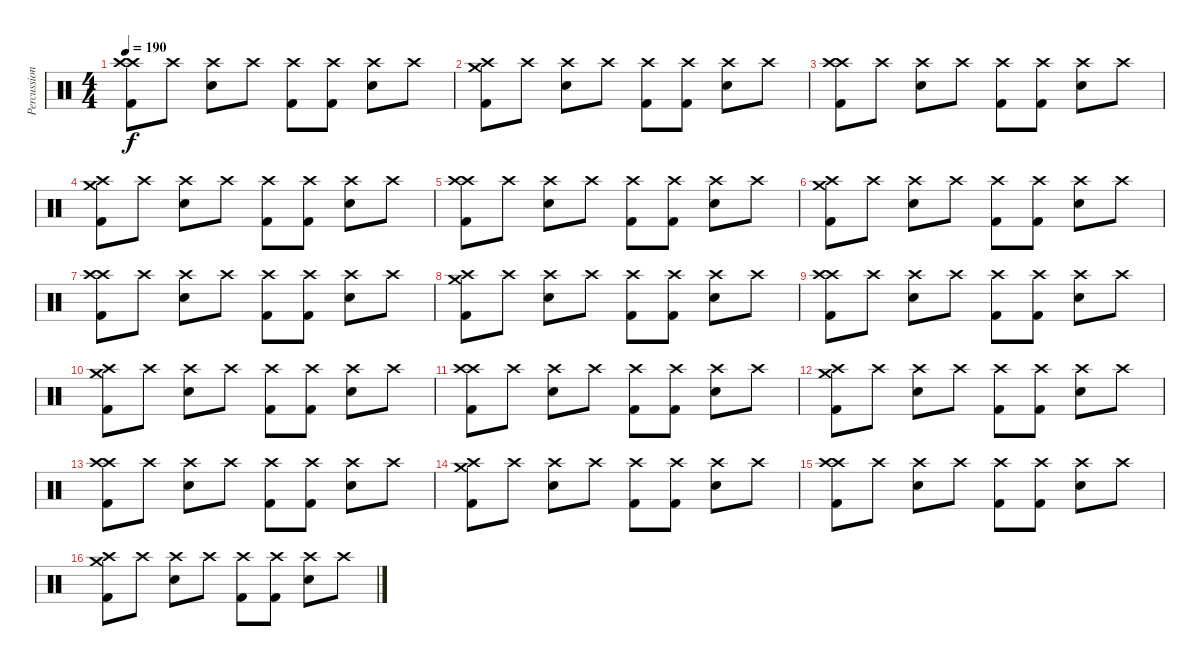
\track ("Percussion" "Percussion") {instrument percussion}
\staff {score}
\articulation defaults
\ts (4 4)
\tempo 190
\clef neutral
\ks c
("Crash high (hit)" "Crash high (hit)" "Kick (hit) 2").8{dy f} "Crash high (hit)".8 ("Crash high (hit)" "Snare (hit) 2").8 "Crash high (hit)".8 ("Crash high (hit)" "Kick (hit) 2").8 ("Crash high (hit)" "Kick (hit) 2").8 ("Crash high (hit)" "Snare (hit) 2").8 "Crash high (hit)".8 |
("Crash medium (hit)" "Crash high (hit)" "Kick (hit) 2").8 "Crash high (hit)".8 ("Crash high (hit)" "Snare (hit) 2").8 "Crash high (hit)".8 ("Crash high (hit)" "Kick (hit) 2").8 ("Crash high (hit)" "Kick (hit) 2").8 ("Crash high (hit)" "Snare (hit) 2").8 "Crash high (hit)".8 |
("Crash high (hit)" "Crash high (hit)" "Kick (hit) 2").8 "Crash high (hit)".8 ("Crash high (hit)" "Snare (hit) 2").8 "Crash high (hit)".8 ("Crash high (hit)" "Kick (hit) 2").8 ("Crash high (hit)" "Kick (hit) 2").8 ("Crash high (hit)" "Snare (hit) 2").8 "Crash high (hit)".8 |
("Crash medium (hit)" "Crash high (hit)" "Kick (hit) 2").8 "Crash high (hit)".8 ("Crash high (hit)" "Snare (hit) 2").8 "Crash high (hit)".8 ("Crash high (hit)" "Kick (hit) 2").8 ("Crash high (hit)" "Kick (hit) 2").8 ("Crash high (hit)" "Snare (hit) 2").8 "Crash high (hit)".8 |
("Crash high (hit)" "Crash high (hit)" "Kick (hit) 2").8 "Crash high (hit)".8 ("Crash high (hit)" "Snare (hit) 2").8 "Crash high (hit)".8 ("Crash high (hit)" "Kick (hit) 2").8 ("Crash high (hit)" "Kick (hit) 2").8 ("Crash high (hit)" "Snare (hit) 2").8 "Crash high (hit)".8 |
("Crash medium (hit)" "Crash high (hit)" "Kick (hit) 2").8 "Crash high (hit)".8 ("Crash high (hit)" "Snare (hit) 2").8 "Crash high (hit)".8 ("Crash high (hit)" "Kick (hit) 2").8 ("Crash high (hit)" "Kick (hit) 2").8 ("Crash high (hit)" "Snare (hit) 2").8 "Crash high (hit)".8 |
("Crash high (hit)" "Crash high (hit)" "Kick (hit) 2").8 "Crash high (hit)".8 ("Crash high (hit)" "Snare (hit) 2").8 "Crash high (hit)".8 ("Crash high (hit)" "Kick (hit) 2").8 ("Crash high (hit)" "Kick (hit) 2").8 ("Crash high (hit)" "Snare (hit) 2").8 "Crash high (hit)".8 |
("Crash medium (hit)" "Crash high (hit)" "Kick (hit) 2").8 "Crash high (hit)".8 ("Crash high (hit)" "Snare (hit) 2").8 "Crash high (hit)".8 ("Crash high (hit)" "Kick (hit) 2").8 ("Crash high (hit)" "Kick (hit) 2").8 ("Crash high (hit)" "Snare (hit) 2").8 "Crash high (hit)".8 |
("Crash high (hit)" "Crash high (hit)" "Kick (hit) 2").8 "Crash high (hit)".8 ("Crash high (hit)" "Snare (hit) 2").8 "Crash high (hit)".8 ("Crash high (hit)" "Kick (hit) 2").8 ("Crash high (hit)" "Kick (hit) 2").8 ("Crash high (hit)" "Snare (hit) 2").8 "Crash high (hit)".8 |
("Crash medium (hit)" "Crash high (hit)" "Kick (hit) 2").8 "Crash high (hit)".8 ("Crash high (hit)" "Snare (hit) 2").8 "Crash high (hit)".8 ("Crash high (hit)" "Kick (hit) 2").8 ("Crash high (hit)" "Kick (hit) 2").8 ("Crash high (hit)" "Snare (hit) 2").8 "Crash high (hit)".8 |
("Crash high (hit)" "Crash high (hit)" "Kick (hit) 2").8 "Crash high (hit)".8 ("Crash high (hit)" "Snare (hit) 2").8 "Crash high (hit)".8 ("Crash high (hit)" "Kick (hit) 2").8 ("Crash high (hit)" "Kick (hit) 2").8 ("Crash high (hit)" "Snare (hit) 2").8 "Crash high (hit)".8 |
("Crash medium (hit)" "Crash high (hit)" "Kick (hit) 2").8 "Crash high (hit)".8 ("Crash high (hit)" "Snare (hit) 2").8 "Crash high (hit)".8 ("Crash high (hit)" "Kick (hit) 2").8 ("Crash high (hit)" "Kick (hit) 2").8 ("Crash high (hit)" "Snare (hit) 2").8 "Crash high (hit)".8 |
("Crash high (hit)" "Crash high (hit)" "Kick (hit) 2").8 "Crash high (hit)".8 ("Crash high (hit)" "Snare (hit) 2").8 "Crash high (hit)".8 ("Crash high (hit)" "Kick (hit) 2").8 ("Crash high (hit)" "Kick (hit) 2").8 ("Crash high (hit)" "Snare (hit) 2").8 "Crash high (hit)".8 |
("Crash medium (hit)" "Crash high (hit)" "Kick (hit) 2").8 "Crash high (hit)".8 ("Crash high (hit)" "Snare (hit) 2").8 "Crash high (hit)".8 ("Crash high (hit)" "Kick (hit) 2").8 ("Crash high (hit)" "Kick (hit) 2").8 ("Crash high (hit)" "Snare (hit) 2").8 "Crash high (hit)".8 |
("Crash high (hit)" "Crash high (hit)" "Kick (hit) 2").8 "Crash high (hit)".8 ("Crash high (hit)" "Snare (hit) 2").8 "Crash high (hit)".8 ("Crash high (hit)" "Kick (hit) 2").8 ("Crash high (hit)" "Kick (hit) 2").8 ("Crash high (hit)" "Snare (hit) 2").8 "Crash high (hit)".8 |
("Crash medium (hit)" "Crash high (hit)" "Kick (hit) 2").8 "Crash high (hit)".8 ("Crash high (hit)" "Snare (hit) 2").8 "Crash high (hit)".8 ("Crash high (hit)" "Kick (hit) 2").8 ("Crash high (hit)" "Kick (hit) 2").8 ("Crash high (hit)" "Snare (hit) 2").8 "Crash high (hit)".8
